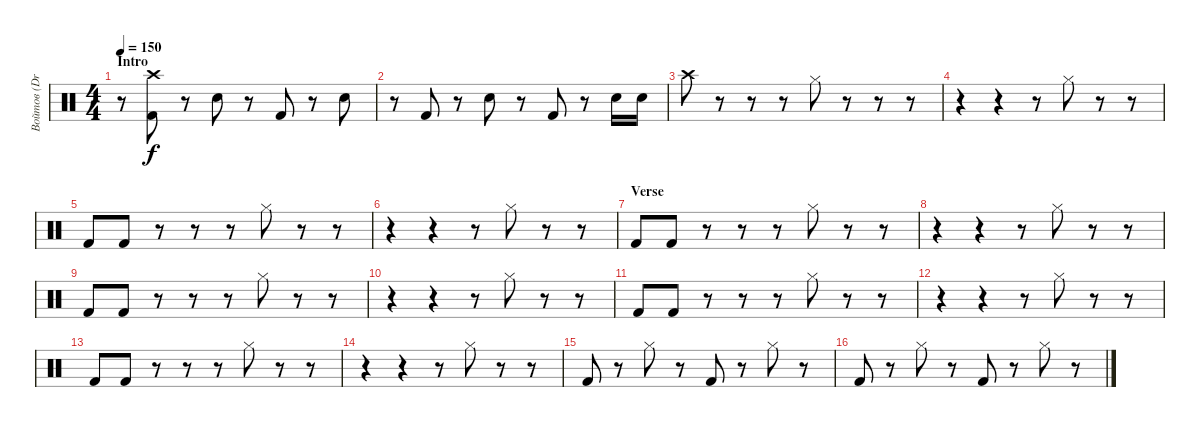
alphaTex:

\track ("Войтов (Drums)" "Войтов (Dr") {instrument percussion}
\staff {score}
\articulation defaults
\ts (4 4)
\section ("" "Intro")
\tempo 150
\clef neutral
\ks c
r.8{dy f} ("Kick (hit) 2" "Crash high (hit)").8 r.8 "Electric Snare (hit)".8 r.8 "Kick (hit) 2".8 r.8 "Electric Snare (hit)".8 |
r.8 "Kick (hit) 2".8 r.8 "Electric Snare (hit)".8 r.8 "Kick (hit) 2".8 r.8 "Electric Snare (hit)".16 "Electric Snare (hit)".16 |
"Crash high (hit)".8 r.8 r.8 r.8 "Hi-Hat (closed)".8 r.8 r.8 r.8 |
r.4 r.4 r.8 "Hi-Hat (closed)".8 r.8 r.8 |
"Kick (hit) 2".8 "Kick (hit) 2".8 r.8 r.8 r.8 "Hi-Hat (closed)".8 r.8 r.8 |
r.4 r.4 r.8 "Hi-Hat (closed)".8 r.8 r.8 |
\section ("" "Verse")
"Kick (hit) 2".8 "Kick (hit) 2".8 r.8 r.8 r.8 "Hi-Hat (closed)".8 r.8 r.8 |
r.4 r.4 r.8 "Hi-Hat (closed)".8 r.8 r.8 |
"Kick (hit) 2".8 "Kick (hit) 2".8 r.8 r.8 r.8 "Hi-Hat (closed)".8 r.8 r.8 |
r.4 r.4 r.8 "Hi-Hat (closed)".8 r.8 r.8 |
"Kick (hit) 2".8 "Kick (hit) 2".8 r.8 r.8 r.8 "Hi-Hat (closed)".8 r.8 r.8 |
r.4 r.4 r.8 "Hi-Hat (closed)".8 r.8 r.8 |
"Kick (hit) 2".8 "Kick (hit) 2".8 r.8 r.8 r.8 "Hi-Hat (closed)".8 r.8 r.8 |
r.4 r.4 r.8 "Hi-Hat (closed)".8 r.8 r.8 |
"Kick (hit) 2".8 r.8 "Hi-Hat (closed)".8 r.8 "Kick (hit) 2".8 r.8 "Hi-Hat (closed)".8 r.8 |
"Kick (hit) 2".8 r.8 "Hi-Hat (closed)".8 r.8 "Kick (hit) 2".8 r.8 "Hi-Hat (closed)".8 r.8
